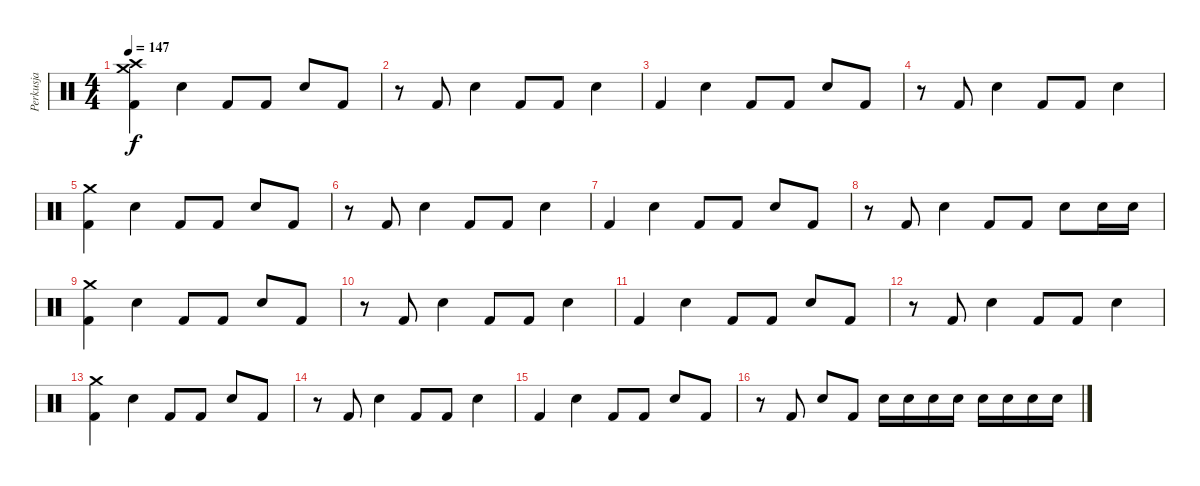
\track ("Perkusja" "Perkusja") {instrument percussion}
\staff {score}
\articulation defaults
\ts (4 4)
\tempo 147
\clef neutral
\ks c
("Crash medium (hit)"{t} "Crash high (hit)"{t} "Kick (hit) 2"{t}).4{dy f} "Electric Snare (hit)".4 "Kick (hit) 2".8 "Kick (hit) 2".8 "Electric Snare (hit)".8 "Kick (hit) 2".8 |
r.8 "Kick (hit) 2".8 "Electric Snare (hit)".4 "Kick (hit) 2".8 "Kick (hit) 2".8 "Electric Snare (hit)".4 |
"Kick (hit) 2".4 "Electric Snare (hit)".4 "Kick (hit) 2".8 "Kick (hit) 2".8 "Electric Snare (hit)".8 "Kick (hit) 2".8 |
r.8 "Kick (hit) 2".8 "Electric Snare (hit)".4 "Kick (hit) 2".8 "Kick (hit) 2".8 "Electric Snare (hit)".4 |
("Crash medium (hit)" "Kick (hit) 2").4 "Electric Snare (hit)".4 "Kick (hit) 2".8 "Kick (hit) 2".8 "Electric Snare (hit)".8 "Kick (hit) 2".8 |
r.8 "Kick (hit) 2".8 "Electric Snare (hit)".4 "Kick (hit) 2".8 "Kick (hit) 2".8 "Electric Snare (hit)".4 |
"Kick (hit) 2".4 "Electric Snare (hit)".4 "Kick (hit) 2".8 "Kick (hit) 2".8 "Electric Snare (hit)".8 "Kick (hit) 2".8 |
r.8 "Kick (hit) 2".8 "Electric Snare (hit)".4 "Kick (hit) 2".8 "Kick (hit) 2".8 "Electric Snare (hit)".8 "Electric Snare (hit)".16 "Electric Snare (hit)".16 |
("Crash medium (hit)" "Kick (hit) 2").4 "Electric Snare (hit)".4 "Kick (hit) 2".8 "Kick (hit) 2".8 "Electric Snare (hit)".8 "Kick (hit) 2".8 |
r.8 "Kick (hit) 2".8 "Electric Snare (hit)".4 "Kick (hit) 2".8 "Kick (hit) 2".8 "Electric Snare (hit)".4 |
"Kick (hit) 2".4 "Electric Snare (hit)".4 "Kick (hit) 2".8 "Kick (hit) 2".8 "Electric Snare (hit)".8 "Kick (hit) 2".8 |
r.8 "Kick (hit) 2".8 "Electric Snare (hit)".4 "Kick (hit) 2".8 "Kick (hit) 2".8 "Electric Snare (hit)".4 |
("Crash medium (hit)" "Kick (hit) 2").4 "Electric Snare (hit)".4 "Kick (hit) 2".8 "Kick (hit) 2".8 "Electric Snare (hit)".8 "Kick (hit) 2".8 |
r.8 "Kick (hit) 2".8 "Electric Snare (hit)".4 "Kick (hit) 2".8 "Kick (hit) 2".8 "Electric Snare (hit)".4 |
"Kick (hit) 2".4 "Electric Snare (hit)".4 "Kick (hit) 2".8 "Kick (hit) 2".8 "Electric Snare (hit)".8 "Kick (hit) 2".8 |
r.8 "Kick (hit) 2".8 "Electric Snare (hit)".8 "Kick (hit) 2".8 "Electric Snare (hit)".16 "Electric Snare (hit)".16 "Electric Snare (hit)".16 "Electric Snare (hit)".16 "Electric Snare (hit)".16 "Electric Snare (hit)".16 "Electric Snare (hit)".16 "Electric Snare (hit)".16
